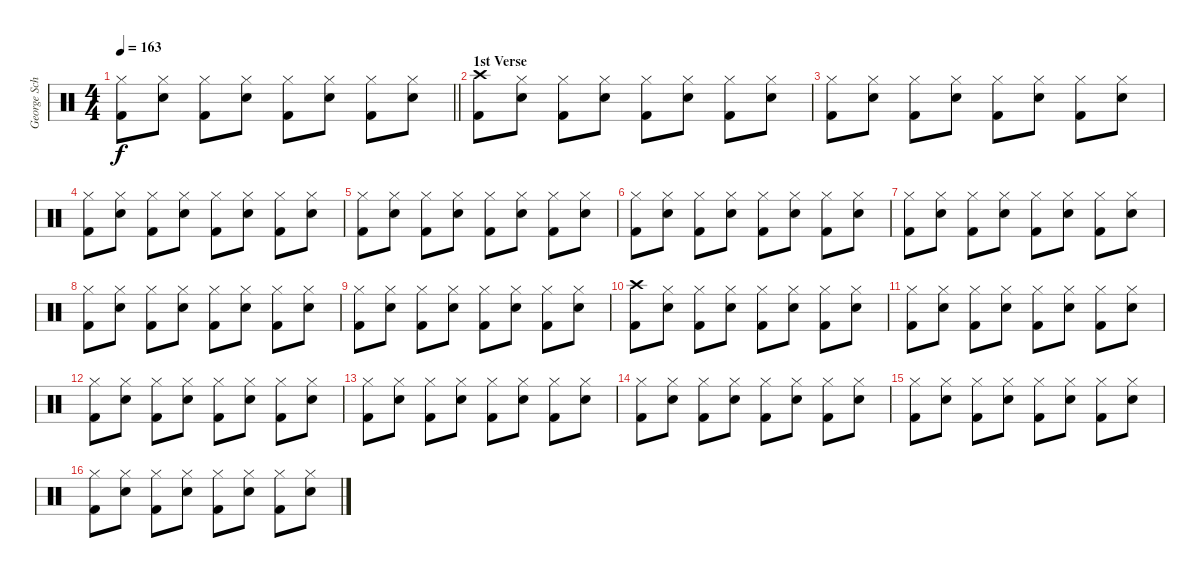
\track ("George Schwindt" "George Sch") {instrument percussion}
\staff {score}
\articulation defaults
\ts (4 4)
\tempo 163
\clef neutral
\barLineRight lightlight
\ks c
("Hi-Hat (closed)" "Kick (hit) 2").8{dy f} ("Hi-Hat (closed)" "Snare (hit) 2").8 ("Hi-Hat (closed)" "Kick (hit) 2").8 ("Hi-Hat (closed)" "Snare (hit) 2").8 ("Hi-Hat (closed)" "Kick (hit) 2").8 ("Hi-Hat (closed)" "Snare (hit) 2").8 ("Hi-Hat (closed)" "Kick (hit) 2").8 ("Hi-Hat (closed)" "Snare (hit) 2").8 |
\section ("" "1st Verse")
("Crash high (hit)" "Kick (hit) 2").8 ("Hi-Hat (closed)" "Snare (hit) 2").8 ("Hi-Hat (closed)" "Kick (hit) 2").8 ("Hi-Hat (closed)" "Snare (hit) 2").8 ("Hi-Hat (closed)" "Kick (hit) 2").8 ("Hi-Hat (closed)" "Snare (hit) 2").8 ("Hi-Hat (closed)" "Kick (hit) 2").8 ("Hi-Hat (closed)" "Snare (hit) 2").8 |
("Hi-Hat (closed)" "Kick (hit) 2").8 ("Hi-Hat (closed)" "Snare (hit) 2").8 ("Hi-Hat (closed)" "Kick (hit) 2").8 ("Hi-Hat (closed)" "Snare (hit) 2").8 ("Hi-Hat (closed)" "Kick (hit) 2").8 ("Hi-Hat (closed)" "Snare (hit) 2").8 ("Hi-Hat (closed)" "Kick (hit) 2").8 ("Hi-Hat (closed)" "Snare (hit) 2").8 |
("Hi-Hat (closed)" "Kick (hit) 2").8 ("Hi-Hat (closed)" "Snare (hit) 2").8 ("Hi-Hat (closed)" "Kick (hit) 2").8 ("Hi-Hat (closed)" "Snare (hit) 2").8 ("Hi-Hat (closed)" "Kick (hit) 2").8 ("Hi-Hat (closed)" "Snare (hit) 2").8 ("Hi-Hat (closed)" "Kick (hit) 2").8 ("Hi-Hat (closed)" "Snare (hit) 2").8 |
("Hi-Hat (closed)" "Kick (hit) 2").8 ("Hi-Hat (closed)" "Snare (hit) 2").8 ("Hi-Hat (closed)" "Kick (hit) 2").8 ("Hi-Hat (closed)" "Snare (hit) 2").8 ("Hi-Hat (closed)" "Kick (hit) 2").8 ("Hi-Hat (closed)" "Snare (hit) 2").8 ("Hi-Hat (closed)" "Kick (hit) 2").8 ("Hi-Hat (closed)" "Snare (hit) 2").8 |
("Hi-Hat (closed)" "Kick (hit) 2").8 ("Hi-Hat (closed)" "Snare (hit) 2").8 ("Hi-Hat (closed)" "Kick (hit) 2").8 ("Hi-Hat (closed)" "Snare (hit) 2").8 ("Hi-Hat (closed)" "Kick (hit) 2").8 ("Hi-Hat (closed)" "Snare (hit) 2").8 ("Hi-Hat (closed)" "Kick (hit) 2").8 ("Hi-Hat (closed)" "Snare (hit) 2").8 |
("Hi-Hat (closed)" "Kick (hit) 2").8 ("Hi-Hat (closed)" "Snare (hit) 2").8 ("Hi-Hat (closed)" "Kick (hit) 2").8 ("Hi-Hat (closed)" "Snare (hit) 2").8 ("Hi-Hat (closed)" "Kick (hit) 2").8 ("Hi-Hat (closed)" "Snare (hit) 2").8 ("Hi-Hat (closed)" "Kick (hit) 2").8 ("Hi-Hat (closed)" "Snare (hit) 2").8 |
("Hi-Hat (closed)" "Kick (hit) 2").8 ("Hi-Hat (closed)" "Snare (hit) 2").8 ("Hi-Hat (closed)" "Kick (hit) 2").8 ("Hi-Hat (closed)" "Snare (hit) 2").8 ("Hi-Hat (closed)" "Kick (hit) 2").8 ("Hi-Hat (closed)" "Snare (hit) 2").8 ("Hi-Hat (closed)" "Kick (hit) 2").8 ("Hi-Hat (closed)" "Snare (hit) 2").8 |
("Hi-Hat (closed)" "Kick (hit) 2").8 ("Hi-Hat (closed)" "Snare (hit) 2").8 ("Hi-Hat (closed)" "Kick (hit) 2").8 ("Hi-Hat (closed)" "Snare (hit) 2").8 ("Hi-Hat (closed)" "Kick (hit) 2").8 ("Hi-Hat (closed)" "Snare (hit) 2").8 ("Hi-Hat (closed)" "Kick (hit) 2").8 ("Hi-Hat (closed)" "Snare (hit) 2").8 |
("Crash high (hit)" "Kick (hit) 2").8 ("Hi-Hat (closed)" "Snare (hit) 2").8 ("Hi-Hat (closed)" "Kick (hit) 2").8 ("Hi-Hat (closed)" "Snare (hit) 2").8 ("Hi-Hat (closed)" "Kick (hit) 2").8 ("Hi-Hat (closed)" "Snare (hit) 2").8 ("Hi-Hat (closed)" "Kick (hit) 2").8 ("Hi-Hat (closed)" "Snare (hit) 2").8 |
("Hi-Hat (closed)" "Kick (hit) 2").8 ("Hi-Hat (closed)" "Snare (hit) 2").8 ("Hi-Hat (closed)" "Kick (hit) 2").8 ("Hi-Hat (closed)" "Snare (hit) 2").8 ("Hi-Hat (closed)" "Kick (hit) 2").8 ("Hi-Hat (closed)" "Snare (hit) 2").8 ("Hi-Hat (closed)" "Kick (hit) 2").8 ("Hi-Hat (closed)" "Snare (hit) 2").8 |
("Hi-Hat (closed)" "Kick (hit) 2").8 ("Hi-Hat (closed)" "Snare (hit) 2").8 ("Hi-Hat (closed)" "Kick (hit) 2").8 ("Hi-Hat (closed)" "Snare (hit) 2").8 ("Hi-Hat (closed)" "Kick (hit) 2").8 ("Hi-Hat (closed)" "Snare (hit) 2").8 ("Hi-Hat (closed)" "Kick (hit) 2").8 ("Hi-Hat (closed)" "Snare (hit) 2").8 |
("Hi-Hat (closed)" "Kick (hit) 2").8 ("Hi-Hat (closed)" "Snare (hit) 2").8 ("Hi-Hat (closed)" "Kick (hit) 2").8 ("Hi-Hat (closed)" "Snare (hit) 2").8 ("Hi-Hat (closed)" "Kick (hit) 2").8 ("Hi-Hat (closed)" "Snare (hit) 2").8 ("Hi-Hat (closed)" "Kick (hit) 2").8 ("Hi-Hat (closed)" "Snare (hit) 2").8 |
("Hi-Hat (closed)" "Kick (hit) 2").8 ("Hi-Hat (closed)" "Snare (hit) 2").8 ("Hi-Hat (closed)" "Kick (hit) 2").8 ("Hi-Hat (closed)" "Snare (hit) 2").8 ("Hi-Hat (closed)" "Kick (hit) 2").8 ("Hi-Hat (closed)" "Snare (hit) 2").8 ("Hi-Hat (closed)" "Kick (hit) 2").8 ("Hi-Hat (closed)" "Snare (hit) 2").8 |
("Hi-Hat (closed)" "Kick (hit) 2").8 ("Hi-Hat (closed)" "Snare (hit) 2").8 ("Hi-Hat (closed)" "Kick (hit) 2").8 ("Hi-Hat (closed)" "Snare (hit) 2").8 ("Hi-Hat (closed)" "Kick (hit) 2").8 ("Hi-Hat (closed)" "Snare (hit) 2").8 ("Hi-Hat (closed)" "Kick (hit) 2").8 ("Hi-Hat (closed)" "Snare (hit) 2").8 |
("Hi-Hat (closed)" "Kick (hit) 2").8 ("Hi-Hat (closed)" "Snare (hit) 2").8 ("Hi-Hat (closed)" "Kick (hit) 2").8 ("Hi-Hat (closed)" "Snare (hit) 2").8 ("Hi-Hat (closed)" "Kick (hit) 2").8 ("Hi-Hat (closed)" "Snare (hit) 2").8 ("Hi-Hat (closed)" "Kick (hit) 2").8 ("Hi-Hat (closed)" "Snare (hit) 2").8
